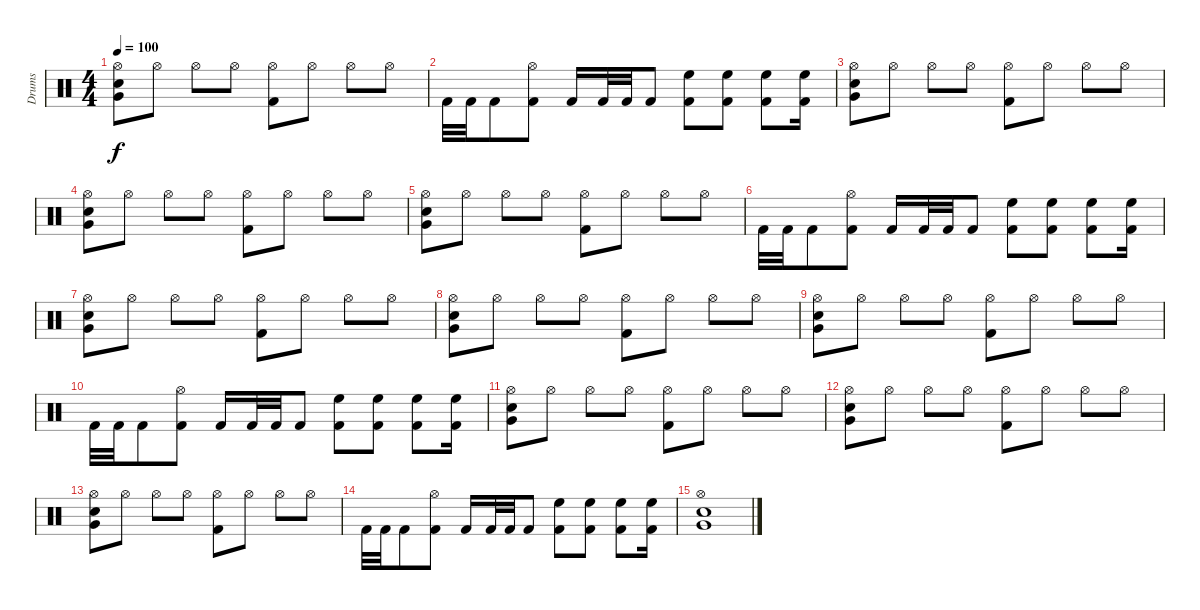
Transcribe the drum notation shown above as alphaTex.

\track ("Drums" "Drums") {instrument percussion}
\staff {score}
\articulation defaults
\ts (4 4)
\tempo 100
\clef neutral
\ks c
("Hi-Hat (open)" "Snare (hit) 2" "Very Low Tom (hit)").8{dy f} "Hi-Hat (open)".8 "Hi-Hat (open)".8 "Hi-Hat (open)".8 ("Hi-Hat (open)" "Kick (hit) 2").8 "Hi-Hat (open)".8 "Hi-Hat (open)".8 "Hi-Hat (open)".8 |
"Kick (hit) 2".32 "Kick (hit) 2".32 "Kick (hit) 2".8 ("Hi-Hat (open)" "Kick (hit) 2").8 "Kick (hit) 2".16 "Kick (hit) 2".32 "Kick (hit) 2".32 "Kick (hit) 2".8 ("High Floor Tom (hit)" "Kick (hit) 2").8 ("High Floor Tom (hit)" "Kick (hit) 2").8 ("High Floor Tom (hit)" "Kick (hit) 2").8 ("High Floor Tom (hit)" "Kick (hit) 2").16 |
("Hi-Hat (open)" "Snare (hit) 2" "Very Low Tom (hit)").8 "Hi-Hat (open)".8 "Hi-Hat (open)".8 "Hi-Hat (open)".8 ("Hi-Hat (open)" "Kick (hit) 2").8 "Hi-Hat (open)".8 "Hi-Hat (open)".8 "Hi-Hat (open)".8 |
("Hi-Hat (open)" "Snare (hit) 2" "Very Low Tom (hit)").8 "Hi-Hat (open)".8 "Hi-Hat (open)".8 "Hi-Hat (open)".8 ("Hi-Hat (open)" "Kick (hit) 2").8 "Hi-Hat (open)".8 "Hi-Hat (open)".8 "Hi-Hat (open)".8 |
("Hi-Hat (open)" "Snare (hit) 2" "Very Low Tom (hit)").8 "Hi-Hat (open)".8 "Hi-Hat (open)".8 "Hi-Hat (open)".8 ("Hi-Hat (open)" "Kick (hit) 2").8 "Hi-Hat (open)".8 "Hi-Hat (open)".8 "Hi-Hat (open)".8 |
"Kick (hit) 2".32 "Kick (hit) 2".32 "Kick (hit) 2".8 ("Hi-Hat (open)" "Kick (hit) 2").8 "Kick (hit) 2".16 "Kick (hit) 2".32 "Kick (hit) 2".32 "Kick (hit) 2".8 ("High Floor Tom (hit)" "Kick (hit) 2").8 ("High Floor Tom (hit)" "Kick (hit) 2").8 ("High Floor Tom (hit)" "Kick (hit) 2").8 ("High Floor Tom (hit)" "Kick (hit) 2").16 |
("Hi-Hat (open)" "Snare (hit) 2" "Very Low Tom (hit)").8 "Hi-Hat (open)".8 "Hi-Hat (open)".8 "Hi-Hat (open)".8 ("Hi-Hat (open)" "Kick (hit) 2").8 "Hi-Hat (open)".8 "Hi-Hat (open)".8 "Hi-Hat (open)".8 |
("Hi-Hat (open)" "Snare (hit) 2" "Very Low Tom (hit)").8 "Hi-Hat (open)".8 "Hi-Hat (open)".8 "Hi-Hat (open)".8 ("Hi-Hat (open)" "Kick (hit) 2").8 "Hi-Hat (open)".8 "Hi-Hat (open)".8 "Hi-Hat (open)".8 |
("Hi-Hat (open)" "Snare (hit) 2" "Very Low Tom (hit)").8 "Hi-Hat (open)".8 "Hi-Hat (open)".8 "Hi-Hat (open)".8 ("Hi-Hat (open)" "Kick (hit) 2").8 "Hi-Hat (open)".8 "Hi-Hat (open)".8 "Hi-Hat (open)".8 |
"Kick (hit) 2".32 "Kick (hit) 2".32 "Kick (hit) 2".8 ("Hi-Hat (open)" "Kick (hit) 2").8 "Kick (hit) 2".16 "Kick (hit) 2".32 "Kick (hit) 2".32 "Kick (hit) 2".8 ("High Floor Tom (hit)" "Kick (hit) 2").8 ("High Floor Tom (hit)" "Kick (hit) 2").8 ("High Floor Tom (hit)" "Kick (hit) 2").8 ("High Floor Tom (hit)" "Kick (hit) 2").16 |
("Hi-Hat (open)" "Snare (hit) 2" "Very Low Tom (hit)").8 "Hi-Hat (open)".8 "Hi-Hat (open)".8 "Hi-Hat (open)".8 ("Hi-Hat (open)" "Kick (hit) 2").8 "Hi-Hat (open)".8 "Hi-Hat (open)".8 "Hi-Hat (open)".8 |
("Hi-Hat (open)" "Snare (hit) 2" "Very Low Tom (hit)").8 "Hi-Hat (open)".8 "Hi-Hat (open)".8 "Hi-Hat (open)".8 ("Hi-Hat (open)" "Kick (hit) 2").8 "Hi-Hat (open)".8 "Hi-Hat (open)".8 "Hi-Hat (open)".8 |
("Hi-Hat (open)" "Snare (hit) 2" "Very Low Tom (hit)").8 "Hi-Hat (open)".8 "Hi-Hat (open)".8 "Hi-Hat (open)".8 ("Hi-Hat (open)" "Kick (hit) 2").8 "Hi-Hat (open)".8 "Hi-Hat (open)".8 "Hi-Hat (open)".8 |
"Kick (hit) 2".32 "Kick (hit) 2".32 "Kick (hit) 2".8 ("Hi-Hat (open)" "Kick (hit) 2").8 "Kick (hit) 2".16 "Kick (hit) 2".32 "Kick (hit) 2".32 "Kick (hit) 2".8 ("High Floor Tom (hit)" "Kick (hit) 2").8 ("High Floor Tom (hit)" "Kick (hit) 2").8 ("High Floor Tom (hit)" "Kick (hit) 2").8 ("High Floor Tom (hit)" "Kick (hit) 2").16 |
("Hi-Hat (open)" "Snare (hit) 2" "Very Low Tom (hit)").1
